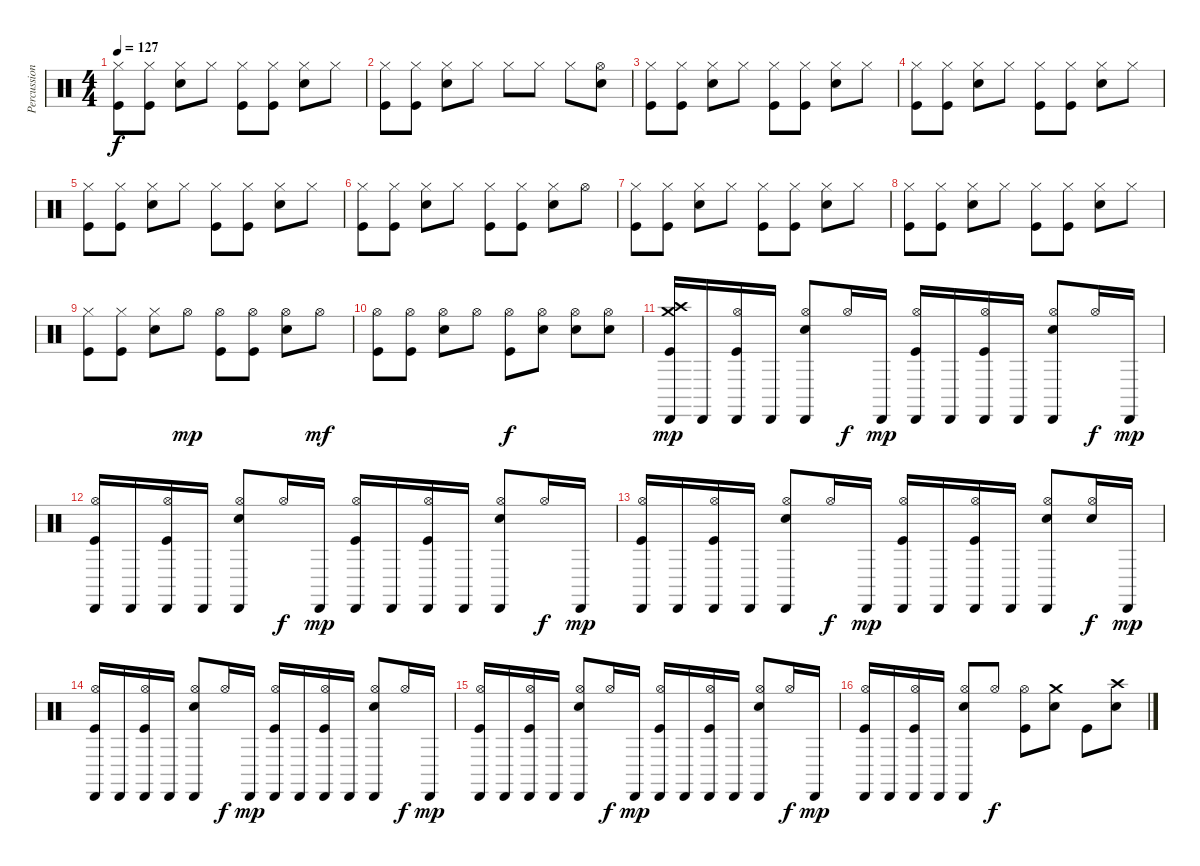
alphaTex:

\track ("Percussion" "Percussion") {instrument percussion}
\staff {score}
\articulation defaults
\ts (4 4)
\tempo 127
\clef neutral
\ks c
("Hi-Hat (closed)" "Kick (hit)").8{dy f} ("Hi-Hat (closed)" "Kick (hit)").8 ("Hi-Hat (closed)" "Snare (hit) 2").8 "Hi-Hat (closed)".8 ("Hi-Hat (closed)" "Kick (hit)").8 ("Hi-Hat (closed)" "Kick (hit)").8 ("Hi-Hat (closed)" "Snare (hit) 2").8 "Hi-Hat (closed)".8 |
("Hi-Hat (closed)" "Kick (hit)").8 ("Hi-Hat (closed)" "Kick (hit)").8 ("Hi-Hat (closed)" "Snare (hit) 2").8 "Hi-Hat (closed)".8 "Hi-Hat (closed)".8 "Hi-Hat (closed)".8 "Hi-Hat (closed)".8 ("Hi-Hat (open)" "Snare (hit) 2").8 |
("Hi-Hat (closed)" "Kick (hit)").8 ("Hi-Hat (closed)" "Kick (hit)").8 ("Hi-Hat (closed)" "Snare (hit) 2").8 "Hi-Hat (closed)".8 ("Hi-Hat (closed)" "Kick (hit)").8 ("Hi-Hat (closed)" "Kick (hit)").8 ("Hi-Hat (closed)" "Snare (hit) 2").8 "Hi-Hat (closed)".8 |
("Hi-Hat (closed)" "Kick (hit)").8 ("Hi-Hat (closed)" "Kick (hit)").8 ("Hi-Hat (closed)" "Snare (hit) 2").8 "Hi-Hat (closed)".8 ("Hi-Hat (closed)" "Kick (hit)").8 ("Hi-Hat (closed)" "Kick (hit)").8 ("Hi-Hat (closed)" "Snare (hit) 2").8 "Hi-Hat (closed)".8 |
("Hi-Hat (closed)" "Kick (hit)").8 ("Hi-Hat (closed)" "Kick (hit)").8 ("Hi-Hat (closed)" "Snare (hit) 2").8 "Hi-Hat (closed)".8 ("Hi-Hat (closed)" "Kick (hit)").8 ("Hi-Hat (closed)" "Kick (hit)").8 ("Hi-Hat (closed)" "Snare (hit) 2").8 "Hi-Hat (closed)".8 |
("Hi-Hat (closed)" "Kick (hit)").8 ("Hi-Hat (closed)" "Kick (hit)").8 ("Hi-Hat (closed)" "Snare (hit) 2").8 "Hi-Hat (closed)".8 ("Hi-Hat (closed)" "Kick (hit)").8 ("Hi-Hat (closed)" "Kick (hit)").8 ("Hi-Hat (closed)" "Snare (hit) 2").8 "Hi-Hat (open)".8 |
("Hi-Hat (closed)" "Kick (hit)").8 ("Hi-Hat (closed)" "Kick (hit)").8 ("Hi-Hat (closed)" "Snare (hit) 2").8 "Hi-Hat (closed)".8 ("Hi-Hat (closed)" "Kick (hit)").8 ("Hi-Hat (closed)" "Kick (hit)").8 ("Hi-Hat (closed)" "Snare (hit) 2").8 "Hi-Hat (closed)".8 |
("Hi-Hat (closed)" "Kick (hit)").8 ("Hi-Hat (closed)" "Kick (hit)").8 ("Hi-Hat (closed)" "Snare (hit) 2").8 "Hi-Hat (closed)".8 ("Hi-Hat (closed)" "Kick (hit)").8 ("Hi-Hat (closed)" "Kick (hit)").8 ("Hi-Hat (closed)" "Snare (hit) 2").8 "Hi-Hat (closed)".8 |
("Hi-Hat (closed)" "Kick (hit)").8 ("Hi-Hat (closed)" "Kick (hit)").8 ("Hi-Hat (closed)" "Snare (hit) 2").8 "Hi-Hat (open)".8{dy mp} ("Hi-Hat (open)" "Kick (hit)").8 ("Hi-Hat (open)" "Kick (hit)").8 ("Hi-Hat (open)" "Snare (hit) 2").8 "Hi-Hat (open)".8{dy mf} |
("Hi-Hat (open)" "Kick (hit)").8 ("Hi-Hat (open)" "Kick (hit)").8 ("Hi-Hat (open)" "Snare (hit) 2").8 "Hi-Hat (open)".8 ("Hi-Hat (open)" "Kick (hit)").8{dy f} ("Hi-Hat (open)" "Snare (hit) 2").8 ("Hi-Hat (open)" "Snare (hit) 2").8 ("Hi-Hat (open)" "Snare (hit) 2").8 |
("Crash high (hit)" "Crash medium (hit)" "Kick (hit)" "Cabasa (hit)").16{dy mp} "Cabasa (hit)".16 ("Hi-Hat (open)" "Kick (hit)" "Cabasa (hit)").16 "Cabasa (hit)".16 ("Hi-Hat (open)" "Snare (hit) 2" "Cabasa (hit)").8 "Hi-Hat (open)".16{dy f} "Cabasa (hit)".16{dy mp} ("Hi-Hat (open)" "Kick (hit)" "Cabasa (hit)").16 "Cabasa (hit)".16 ("Hi-Hat (open)" "Kick (hit)" "Cabasa (hit)").16 "Cabasa (hit)".16 ("Hi-Hat (open)" "Snare (hit) 2" "Cabasa (hit)").8 "Hi-Hat (open)".16{dy f} "Cabasa (hit)".16{dy mp} |
("Hi-Hat (open)" "Kick (hit)" "Cabasa (hit)").16 "Cabasa (hit)".16 ("Hi-Hat (open)" "Kick (hit)" "Cabasa (hit)").16 "Cabasa (hit)".16 ("Hi-Hat (open)" "Snare (hit) 2" "Cabasa (hit)").8 "Hi-Hat (open)".16{dy f} "Cabasa (hit)".16{dy mp} ("Hi-Hat (open)" "Kick (hit)" "Cabasa (hit)").16 "Cabasa (hit)".16 ("Hi-Hat (open)" "Kick (hit)" "Cabasa (hit)").16 "Cabasa (hit)".16 ("Hi-Hat (open)" "Snare (hit) 2" "Cabasa (hit)").8 "Hi-Hat (open)".16{dy f} "Cabasa (hit)".16{dy mp} |
("Hi-Hat (open)" "Kick (hit)" "Cabasa (hit)").16 "Cabasa (hit)".16 ("Hi-Hat (open)" "Kick (hit)" "Cabasa (hit)").16 "Cabasa (hit)".16 ("Hi-Hat (open)" "Snare (hit) 2" "Cabasa (hit)").8 "Hi-Hat (open)".16{dy f} "Cabasa (hit)".16{dy mp} ("Hi-Hat (open)" "Kick (hit)" "Cabasa (hit)").16 "Cabasa (hit)".16 ("Hi-Hat (open)" "Kick (hit)" "Cabasa (hit)").16 "Cabasa (hit)".16 ("Hi-Hat (open)" "Snare (hit) 2" "Cabasa (hit)").8 ("Hi-Hat (open)" "Snare (hit) 2").16{dy f} "Cabasa (hit)".16{dy mp} |
("Hi-Hat (open)" "Kick (hit)" "Cabasa (hit)").16 "Cabasa (hit)".16 ("Hi-Hat (open)" "Kick (hit)" "Cabasa (hit)").16 "Cabasa (hit)".16 ("Hi-Hat (open)" "Snare (hit) 2" "Cabasa (hit)").8 "Hi-Hat (open)".16{dy f} "Cabasa (hit)".16{dy mp} ("Hi-Hat (open)" "Kick (hit)" "Cabasa (hit)").16 "Cabasa (hit)".16 ("Hi-Hat (open)" "Kick (hit)" "Cabasa (hit)").16 "Cabasa (hit)".16 ("Hi-Hat (open)" "Snare (hit) 2" "Cabasa (hit)").8 "Hi-Hat (open)".16{dy f} "Cabasa (hit)".16{dy mp} |
("Hi-Hat (open)" "Kick (hit)" "Cabasa (hit)").16 "Cabasa (hit)".16 ("Hi-Hat (open)" "Kick (hit)" "Cabasa (hit)").16 "Cabasa (hit)".16 ("Hi-Hat (open)" "Snare (hit) 2" "Cabasa (hit)").8 "Hi-Hat (open)".16{dy f} "Cabasa (hit)".16{dy mp} ("Hi-Hat (open)" "Kick (hit)" "Cabasa (hit)").16 "Cabasa (hit)".16 ("Hi-Hat (open)" "Kick (hit)" "Cabasa (hit)").16 "Cabasa (hit)".16 ("Hi-Hat (open)" "Snare (hit) 2" "Cabasa (hit)").8 "Hi-Hat (open)".16{dy f} "Cabasa (hit)".16{dy mp} |
("Hi-Hat (open)" "Kick (hit)" "Cabasa (hit)").16 "Cabasa (hit)".16 ("Hi-Hat (open)" "Kick (hit)" "Cabasa (hit)").16 "Cabasa (hit)".16 ("Hi-Hat (open)" "Snare (hit) 2" "Cabasa (hit)").8 "Hi-Hat (open)".8{dy f} ("Hi-Hat (open)" "Kick (hit)").8 ("Crash medium (hit)" "Snare (hit) 2").8 "Kick (hit)".8 ("Crash high (hit)" "Snare (hit) 2").8
